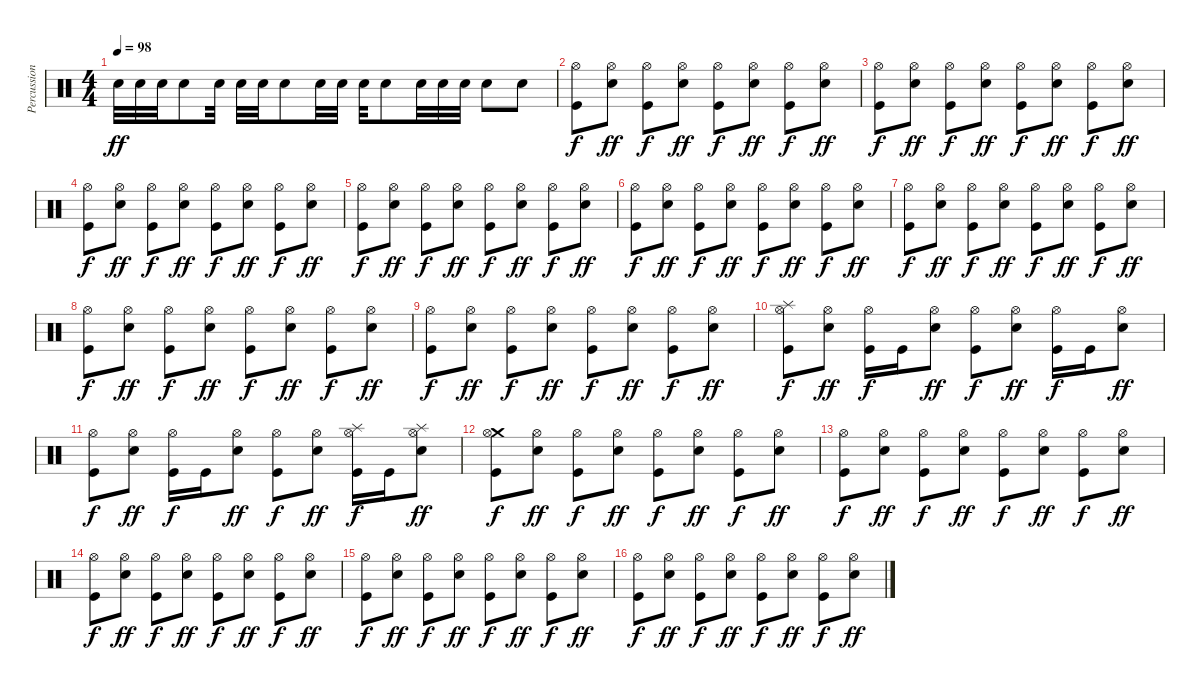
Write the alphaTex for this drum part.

\track ("Percussion" "Percussion") {instrument percussion}
\staff {score}
\articulation defaults
\ts (4 4)
\tempo 98
\clef neutral
\ks c "Snare (hit) 2".32{dy ff} "Snare (hit) 2".32 "Snare (hit) 2".32 "Snare (hit) 2".8 "Snare (hit) 2".32 "Snare (hit) 2".32 "Snare (hit) 2".32 "Snare (hit) 2".8 "Snare (hit) 2".32 "Snare (hit) 2".32 "Snare (hit) 2".32 "Snare (hit) 2".8 "Snare (hit) 2".32 "Snare (hit) 2".32 "Snare (hit) 2".32 "Snare (hit) 2".8 "Snare (hit) 2".8
|
("Hi-Hat (open)" "Kick (hit)").8{dy f} ("Hi-Hat (open)" "Snare (hit) 2").8{dy ff} ("Hi-Hat (open)" "Kick (hit)").8{dy f} ("Hi-Hat (open)" "Snare (hit) 2").8{dy ff} ("Hi-Hat (open)" "Kick (hit)").8{dy f} ("Hi-Hat (open)" "Snare (hit) 2").8{dy ff} ("Hi-Hat (open)" "Kick (hit)").8{dy f} ("Hi-Hat (open)" "Snare (hit) 2").8{dy ff} |
("Hi-Hat (open)" "Kick (hit)").8{dy f} ("Hi-Hat (open)" "Snare (hit) 2").8{dy ff} ("Hi-Hat (open)" "Kick (hit)").8{dy f} ("Hi-Hat (open)" "Snare (hit) 2").8{dy ff} ("Hi-Hat (open)" "Kick (hit)").8{dy f} ("Hi-Hat (open)" "Snare (hit) 2").8{dy ff} ("Hi-Hat (open)" "Kick (hit)").8{dy f} ("Hi-Hat (open)" "Snare (hit) 2").8{dy ff} |
("Hi-Hat (open)" "Kick (hit)").8{dy f} ("Hi-Hat (open)" "Snare (hit) 2").8{dy ff} ("Hi-Hat (open)" "Kick (hit)").8{dy f} ("Hi-Hat (open)" "Snare (hit) 2").8{dy ff} ("Hi-Hat (open)" "Kick (hit)").8{dy f} ("Hi-Hat (open)" "Snare (hit) 2").8{dy ff} ("Hi-Hat (open)" "Kick (hit)").8{dy f} ("Hi-Hat (open)" "Snare (hit) 2").8{dy ff} |
("Hi-Hat (open)" "Kick (hit)").8{dy f} ("Hi-Hat (open)" "Snare (hit) 2").8{dy ff} ("Hi-Hat (open)" "Kick (hit)").8{dy f} ("Hi-Hat (open)" "Snare (hit) 2").8{dy ff} ("Hi-Hat (open)" "Kick (hit)").8{dy f} ("Hi-Hat (open)" "Snare (hit) 2").8{dy ff} ("Hi-Hat (open)" "Kick (hit)").8{dy f} ("Hi-Hat (open)" "Snare (hit) 2").8{dy ff} |
("Hi-Hat (open)" "Kick (hit)").8{dy f} ("Hi-Hat (open)" "Snare (hit) 2").8{dy ff} ("Hi-Hat (open)" "Kick (hit)").8{dy f} ("Hi-Hat (open)" "Snare (hit) 2").8{dy ff} ("Hi-Hat (open)" "Kick (hit)").8{dy f} ("Hi-Hat (open)" "Snare (hit) 2").8{dy ff} ("Hi-Hat (open)" "Kick (hit)").8{dy f} ("Hi-Hat (open)" "Snare (hit) 2").8{dy ff} |
("Hi-Hat (open)" "Kick (hit)").8{dy f} ("Hi-Hat (open)" "Snare (hit) 2").8{dy ff} ("Hi-Hat (open)" "Kick (hit)").8{dy f} ("Hi-Hat (open)" "Snare (hit) 2").8{dy ff} ("Hi-Hat (open)" "Kick (hit)").8{dy f} ("Hi-Hat (open)" "Snare (hit) 2").8{dy ff} ("Hi-Hat (open)" "Kick (hit)").8{dy f} ("Hi-Hat (open)" "Snare (hit) 2").8{dy ff} |
("Hi-Hat (open)" "Kick (hit)").8{dy f} ("Hi-Hat (open)" "Snare (hit) 2").8{dy ff} ("Hi-Hat (open)" "Kick (hit)").8{dy f} ("Hi-Hat (open)" "Snare (hit) 2").8{dy ff} ("Hi-Hat (open)" "Kick (hit)").8{dy f} ("Hi-Hat (open)" "Snare (hit) 2").8{dy ff} ("Hi-Hat (open)" "Kick (hit)").8{dy f} ("Hi-Hat (open)" "Snare (hit) 2").8{dy ff} |
("Hi-Hat (open)" "Kick (hit)").8{dy f} ("Hi-Hat (open)" "Snare (hit) 2").8{dy ff} ("Hi-Hat (open)" "Kick (hit)").8{dy f} ("Hi-Hat (open)" "Snare (hit) 2").8{dy ff} ("Hi-Hat (open)" "Kick (hit)").8{dy f} ("Hi-Hat (open)" "Snare (hit) 2").8{dy ff} ("Hi-Hat (open)" "Kick (hit)").8{dy f} ("Hi-Hat (open)" "Snare (hit) 2").8{dy ff} |
("Splash (hit)" "Hi-Hat (open)" "Kick (hit)").8{dy f} ("Hi-Hat (open)" "Snare (hit) 2").8{dy ff} ("Hi-Hat (open)" "Kick (hit)").16{dy f} "Kick (hit)".16 ("Hi-Hat (open)" "Snare (hit) 2").8{dy ff} ("Hi-Hat (open)" "Kick (hit)").8{dy f} ("Hi-Hat (open)" "Snare (hit) 2").8{dy ff} ("Hi-Hat (open)" "Kick (hit)").16{dy f} "Kick (hit)".16 ("Hi-Hat (open)" "Snare (hit) 2").8{dy ff} |
("Hi-Hat (open)" "Kick (hit)").8{dy f} ("Hi-Hat (open)" "Snare (hit) 2").8{dy ff} ("Hi-Hat (open)" "Kick (hit)").16{dy f} "Kick (hit)".16 ("Hi-Hat (open)" "Snare (hit) 2").8{dy ff} ("Hi-Hat (open)" "Kick (hit)").8{dy f} ("Hi-Hat (open)" "Snare (hit) 2").8{dy ff} ("Splash (hit)" "Hi-Hat (open)" "Kick (hit)").16{dy f} "Kick (hit)".16 ("Splash (hit)" "Hi-Hat (open)" "Snare (hit) 2").8{dy ff} |
("Crash medium (hit)" "Hi-Hat (open)" "Kick (hit)").8{dy f} ("Hi-Hat (open)" "Snare (hit) 2").8{dy ff} ("Hi-Hat (open)" "Kick (hit)").8{dy f} ("Hi-Hat (open)" "Snare (hit) 2").8{dy ff} ("Hi-Hat (open)" "Kick (hit)").8{dy f} ("Hi-Hat (open)" "Snare (hit) 2").8{dy ff} ("Hi-Hat (open)" "Kick (hit)").8{dy f} ("Hi-Hat (open)" "Snare (hit) 2").8{dy ff} |
("Hi-Hat (open)" "Kick (hit)").8{dy f} ("Hi-Hat (open)" "Snare (hit) 2").8{dy ff} ("Hi-Hat (open)" "Kick (hit)").8{dy f} ("Hi-Hat (open)" "Snare (hit) 2").8{dy ff} ("Hi-Hat (open)" "Kick (hit)").8{dy f} ("Hi-Hat (open)" "Snare (hit) 2").8{dy ff} ("Hi-Hat (open)" "Kick (hit)").8{dy f} ("Hi-Hat (open)" "Snare (hit) 2").8{dy ff} |
("Hi-Hat (open)" "Kick (hit)").8{dy f} ("Hi-Hat (open)" "Snare (hit) 2").8{dy ff} ("Hi-Hat (open)" "Kick (hit)").8{dy f} ("Hi-Hat (open)" "Snare (hit) 2").8{dy ff} ("Hi-Hat (open)" "Kick (hit)").8{dy f} ("Hi-Hat (open)" "Snare (hit) 2").8{dy ff} ("Hi-Hat (open)" "Kick (hit)").8{dy f} ("Hi-Hat (open)" "Snare (hit) 2").8{dy ff} |
("Hi-Hat (open)" "Kick (hit)").8{dy f} ("Hi-Hat (open)" "Snare (hit) 2").8{dy ff} ("Hi-Hat (open)" "Kick (hit)").8{dy f} ("Hi-Hat (open)" "Snare (hit) 2").8{dy ff} ("Hi-Hat (open)" "Kick (hit)").8{dy f} ("Hi-Hat (open)" "Snare (hit) 2").8{dy ff} ("Hi-Hat (open)" "Kick (hit)").8{dy f} ("Hi-Hat (open)" "Snare (hit) 2").8{dy ff} |
("Hi-Hat (open)" "Kick (hit)").8{dy f} ("Hi-Hat (open)" "Snare (hit) 2").8{dy ff} ("Hi-Hat (open)" "Kick (hit)").8{dy f} ("Hi-Hat (open)" "Snare (hit) 2").8{dy ff} ("Hi-Hat (open)" "Kick (hit)").8{dy f} ("Hi-Hat (open)" "Snare (hit) 2").8{dy ff} ("Hi-Hat (open)" "Kick (hit)").8{dy f} ("Hi-Hat (open)" "Snare (hit) 2").8{dy ff}
